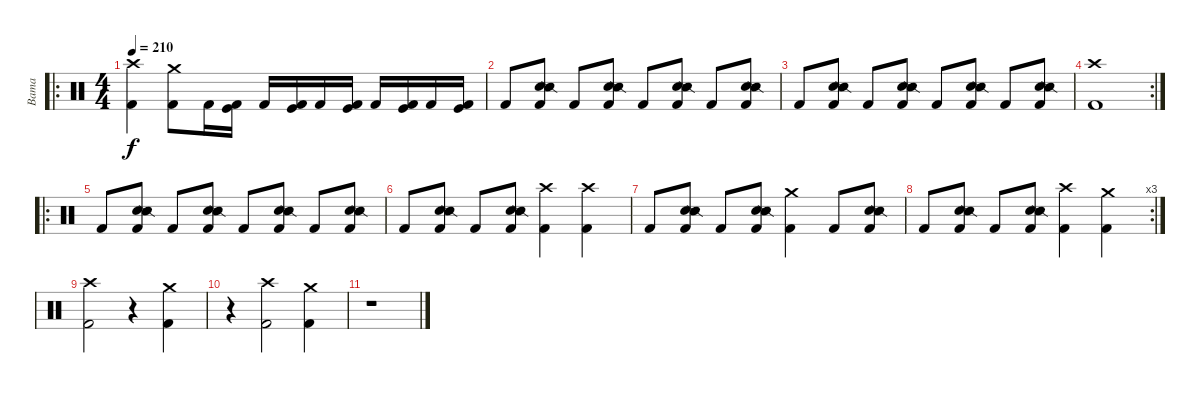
\track ("Bama" "Bama") {instrument percussion}
\staff {score}
\articulation defaults
\ro
\ts (4 4)
\tempo 210
\clef neutral
\ks c
("Crash high (hit)" "Kick (hit) 2").4{dy f} ("Crash medium (hit)" "Kick (hit) 2").8 "Kick (hit) 2".16 ("Kick (hit)" "Kick (hit) 2").16 "Kick (hit) 2".16 ("Kick (hit)" "Kick (hit) 2").16 "Kick (hit) 2".16 ("Kick (hit)" "Kick (hit) 2").16 "Kick (hit) 2".16 ("Kick (hit)" "Kick (hit) 2").16 "Kick (hit) 2".16 ("Kick (hit)" "Kick (hit) 2").16 |
"Kick (hit) 2".8 ("Electric Snare (hit)" "Snare (side stick) 2" "Kick (hit) 2").8 "Kick (hit) 2".8 ("Electric Snare (hit)" "Snare (side stick) 2" "Kick (hit) 2").8 "Kick (hit) 2".8 ("Electric Snare (hit)" "Snare (side stick) 2" "Kick (hit) 2").8 "Kick (hit) 2".8 ("Electric Snare (hit)" "Snare (side stick) 2" "Kick (hit) 2").8 |
"Kick (hit) 2".8 ("Electric Snare (hit)" "Snare (side stick) 2" "Kick (hit) 2").8 "Kick (hit) 2".8 ("Electric Snare (hit)" "Snare (side stick) 2" "Kick (hit) 2").8 "Kick (hit) 2".8 ("Electric Snare (hit)" "Snare (side stick) 2" "Kick (hit) 2").8 "Kick (hit) 2".8 ("Electric Snare (hit)" "Snare (side stick) 2" "Kick (hit) 2").8 |
\rc 2
("Crash high (hit)" "Kick (hit) 2").1 |
\ro "Kick (hit) 2".8
("Electric Snare (hit)" "Snare (side stick) 2" "Kick (hit) 2").8 "Kick (hit) 2".8 ("Electric Snare (hit)" "Snare (side stick) 2" "Kick (hit) 2").8 "Kick (hit) 2".8 ("Electric Snare (hit)" "Snare (side stick) 2" "Kick (hit) 2").8 "Kick (hit) 2".8 ("Electric Snare (hit)" "Snare (side stick) 2" "Kick (hit) 2").8 |
"Kick (hit) 2".8 ("Electric Snare (hit)" "Snare (side stick) 2" "Kick (hit) 2").8 "Kick (hit) 2".8 ("Electric Snare (hit)" "Snare (side stick) 2" "Kick (hit) 2").8 ("Crash high (hit)" "Kick (hit) 2").4 ("Crash high (hit)" "Kick (hit) 2").4 |
"Kick (hit) 2".8 ("Electric Snare (hit)" "Snare (side stick) 2" "Kick (hit) 2").8 "Kick (hit) 2".8 ("Electric Snare (hit)" "Snare (side stick) 2" "Kick (hit) 2").8 ("Crash medium (hit)" "Kick (hit) 2").4 "Kick (hit) 2".8 ("Electric Snare (hit)" "Snare (side stick) 2" "Kick (hit) 2").8 |
\rc 3 "Kick (hit) 2".8
("Electric Snare (hit)" "Snare (side stick) 2" "Kick (hit) 2").8 "Kick (hit) 2".8 ("Electric Snare (hit)" "Snare (side stick) 2" "Kick (hit) 2").8 ("Crash high (hit)" "Kick (hit) 2").4 ("Crash medium (hit)" "Kick (hit) 2").4 |
("Crash high (hit)" "Kick (hit) 2").2 r.4 ("Crash medium (hit)" "Kick (hit) 2").4 |
r.4 ("Crash high (hit)" "Kick (hit) 2").2 ("Crash medium (hit)" "Kick (hit) 2").4 |
r.1
